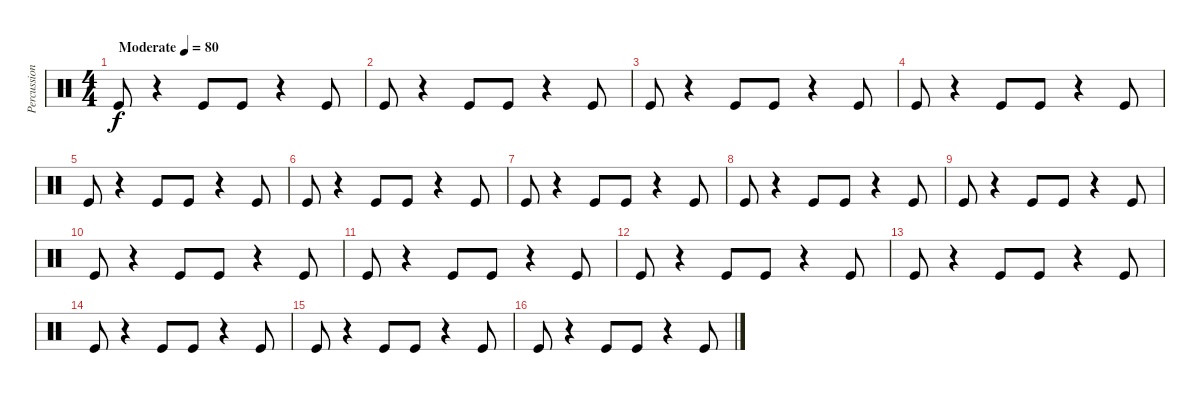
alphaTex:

\track ("Percussion" "Percussion") {instrument percussion}
\staff {score}
\articulation defaults
\ts (4 4)
\tempo (80 "Moderate")
\clef neutral
\ks c "Kick (hit)".8{dy f}
r.4 "Kick (hit)".8{beam merge} "Kick (hit)".8 r.4 "Kick (hit)".8 |
"Kick (hit)".8 r.4 "Kick (hit)".8{beam merge} "Kick (hit)".8 r.4 "Kick (hit)".8 |
"Kick (hit)".8 r.4 "Kick (hit)".8{beam merge} "Kick (hit)".8 r.4 "Kick (hit)".8 |
"Kick (hit)".8 r.4 "Kick (hit)".8{beam merge} "Kick (hit)".8 r.4 "Kick (hit)".8 |
"Kick (hit)".8 r.4 "Kick (hit)".8{beam merge} "Kick (hit)".8 r.4 "Kick (hit)".8 |
"Kick (hit)".8 r.4 "Kick (hit)".8{beam merge} "Kick (hit)".8 r.4 "Kick (hit)".8 |
"Kick (hit)".8 r.4 "Kick (hit)".8{beam merge} "Kick (hit)".8 r.4 "Kick (hit)".8 |
"Kick (hit)".8 r.4 "Kick (hit)".8{beam merge} "Kick (hit)".8 r.4 "Kick (hit)".8 |
"Kick (hit)".8 r.4 "Kick (hit)".8{beam merge} "Kick (hit)".8 r.4 "Kick (hit)".8 |
"Kick (hit)".8 r.4 "Kick (hit)".8{beam merge} "Kick (hit)".8 r.4 "Kick (hit)".8 |
"Kick (hit)".8 r.4 "Kick (hit)".8{beam merge} "Kick (hit)".8 r.4 "Kick (hit)".8 |
"Kick (hit)".8 r.4 "Kick (hit)".8{beam merge} "Kick (hit)".8 r.4 "Kick (hit)".8 |
"Kick (hit)".8 r.4 "Kick (hit)".8{beam merge} "Kick (hit)".8 r.4 "Kick (hit)".8 |
"Kick (hit)".8 r.4 "Kick (hit)".8{beam merge} "Kick (hit)".8 r.4 "Kick (hit)".8 |
"Kick (hit)".8 r.4 "Kick (hit)".8{beam merge} "Kick (hit)".8 r.4 "Kick (hit)".8 |
"Kick (hit)".8 r.4 "Kick (hit)".8{beam merge} "Kick (hit)".8 r.4 "Kick (hit)".8
